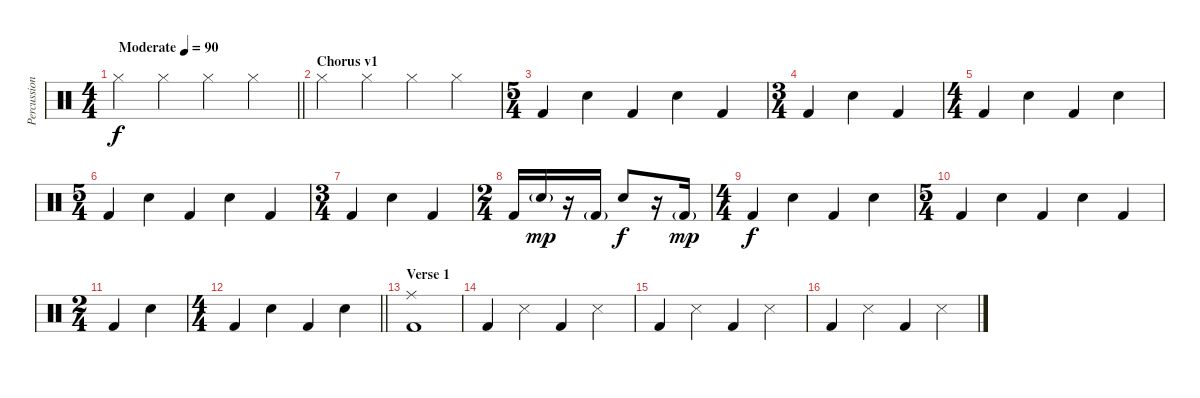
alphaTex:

\track ("Percussion" "Percussion") {instrument percussion}
\staff {score}
\articulation defaults
\ts (4 4)
\tempo (90 "Moderate")
\clef neutral
\barLineRight lightlight
\ks c "Hi-Hat (closed)".4{dy f} "Hi-Hat (closed)".4 "Hi-Hat (closed)".4 "Hi-Hat (closed)".4
|
\section ("" "Chorus v1")
"Hi-Hat (closed)".4 "Hi-Hat (closed)".4 "Hi-Hat (closed)".4 "Hi-Hat (closed)".4 |
\ts (5 4)
"Kick (hit) 2".4 "Snare (hit) 2".4 "Kick (hit) 2".4 "Snare (hit) 2".4 "Kick (hit) 2".4 |
\ts (3 4)
"Kick (hit) 2".4 "Snare (hit) 2".4 "Kick (hit) 2".4 |
\ts (4 4)
"Kick (hit) 2".4 "Snare (hit) 2".4 "Kick (hit) 2".4 "Snare (hit) 2".4 |
\ts (5 4)
"Kick (hit) 2".4 "Snare (hit) 2".4 "Kick (hit) 2".4 "Snare (hit) 2".4 "Kick (hit) 2".4 |
\ts (3 4)
"Kick (hit) 2".4 "Snare (hit) 2".4 "Kick (hit) 2".4 |
\ts (2 4)
"Kick (hit) 2".16 "Snare (hit) 2"{g}.16{dy mp} r.16 "Kick (hit) 2"{g}.16 "Snare (hit) 2".8{dy f} r.16 "Kick (hit) 2"{g}.16{dy mp} |
\ts (4 4)
"Kick (hit) 2".4{dy f} "Snare (hit) 2".4 "Kick (hit) 2".4 "Snare (hit) 2".4 |
\ts (5 4)
"Kick (hit) 2".4 "Snare (hit) 2".4 "Kick (hit) 2".4 "Snare (hit) 2".4 "Kick (hit) 2".4 |
\ts (2 4)
"Kick (hit) 2".4 "Snare (hit) 2".4 |
\ts (4 4)
\barLineRight lightlight "Kick (hit) 2".4 "Snare (hit) 2".4 "Kick (hit) 2".4 "Snare (hit) 2".4
|
\section ("" "Verse 1")
("Ride (middle)" "Kick (hit) 2").1 |
"Kick (hit) 2".4 "Snare (side stick) 3".4 "Kick (hit) 2".4 "Snare (side stick) 3".4 |
"Kick (hit) 2".4 "Snare (side stick) 3".4 "Kick (hit) 2".4 "Snare (side stick) 3".4 |
"Kick (hit) 2".4 "Snare (side stick) 3".4 "Kick (hit) 2".4 "Snare (side stick) 3".4
